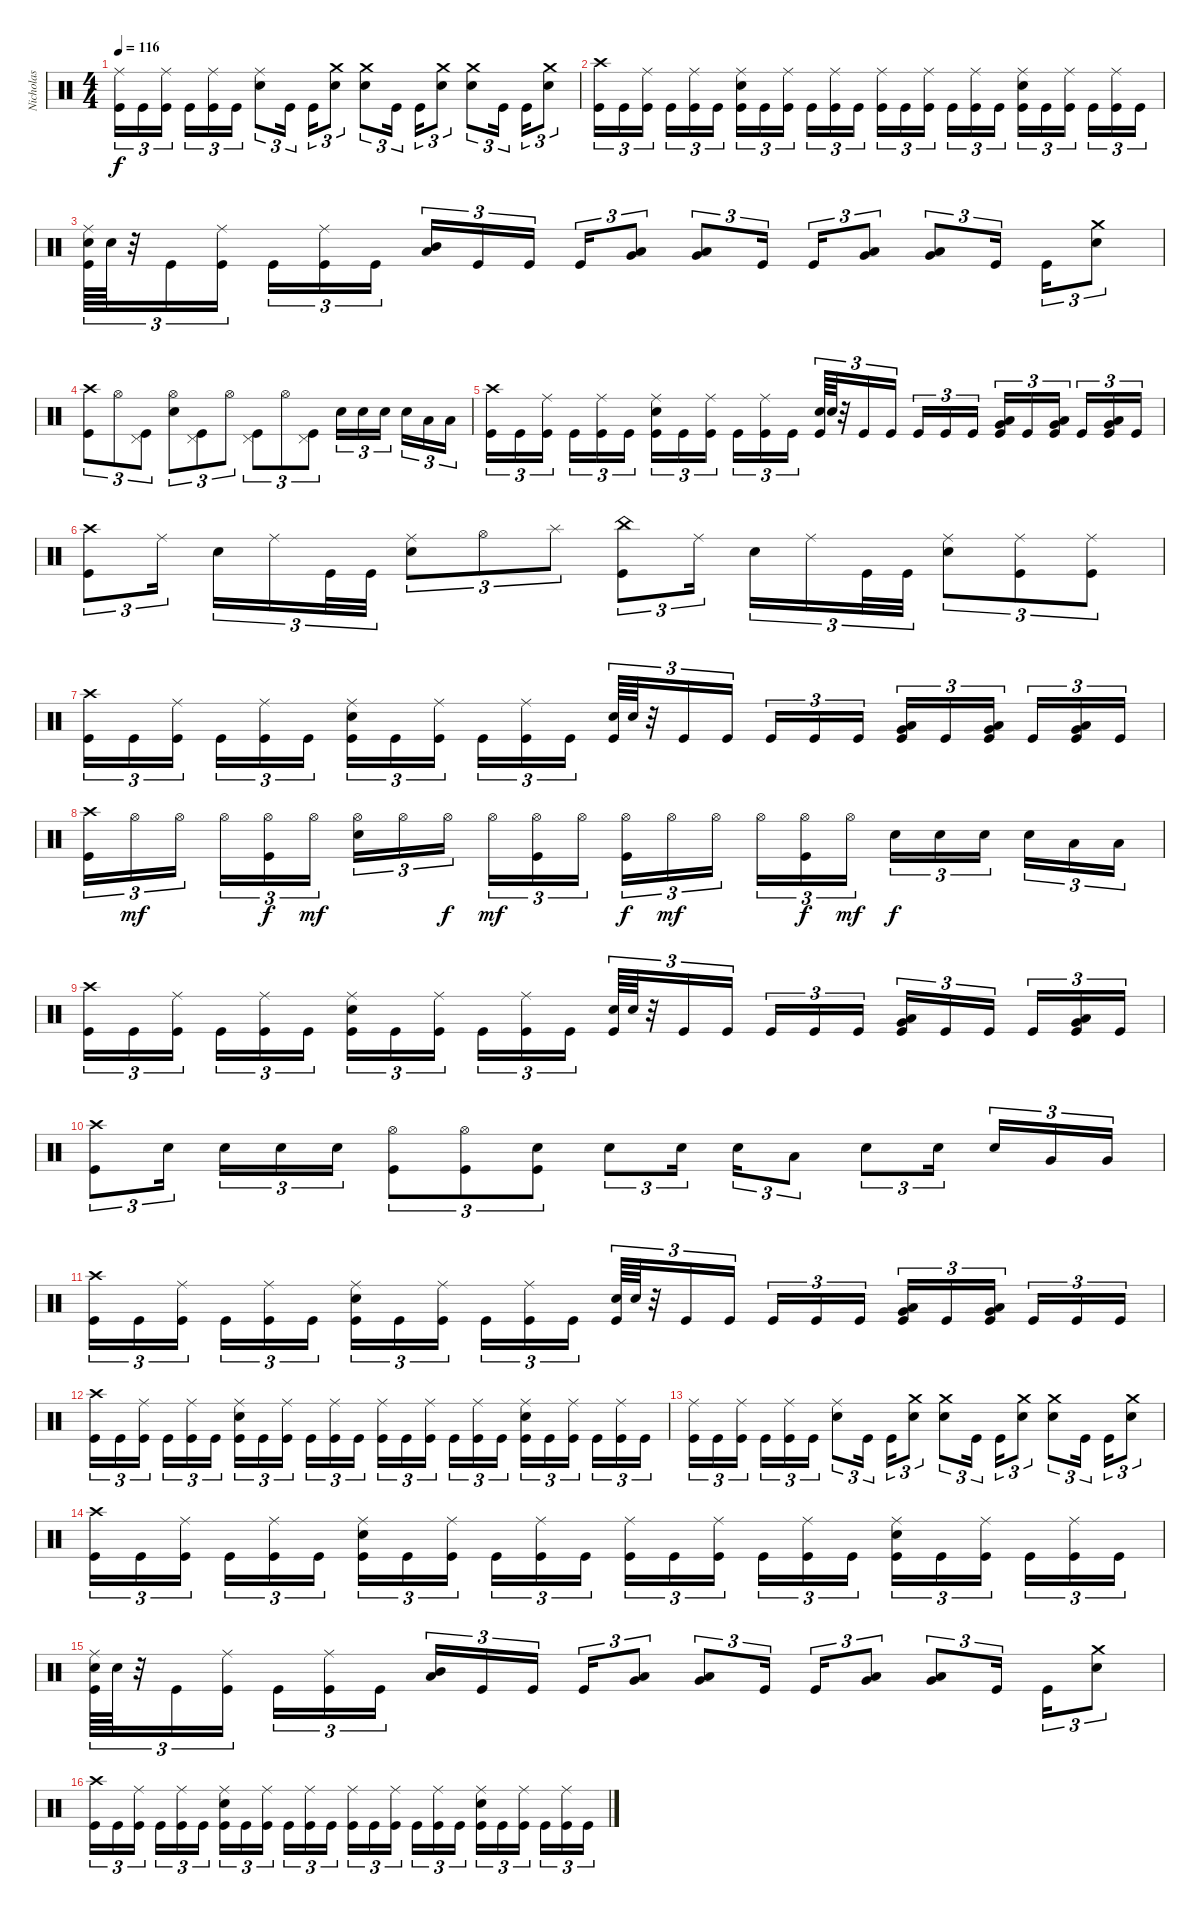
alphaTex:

\track ("Nicholas" "Nicholas") {instrument percussion}
\staff {score}
\articulation defaults
\ts (4 4)
\tempo 116
\clef neutral
\ks c
("Ride (middle)" "Kick (hit)").16{tu (3 2) dy f} "Kick (hit)".16{tu (3 2)} ("Ride (middle)" "Kick (hit)").16{tu (3 2)} "Kick (hit)".16{tu (3 2)} ("Ride (middle)" "Kick (hit)").16{tu (3 2)} "Kick (hit)".16{tu (3 2)} ("Ride (middle)" "Electric Snare (hit)").8{tu (3 2)} "Kick (hit)".16{tu (3 2)} "Kick (hit)".16{tu (3 2)} ("Crash medium (hit)" "Electric Snare (hit)").8{tu (3 2)} ("Crash medium (hit)" "Electric Snare (hit)").8{tu (3 2)} "Kick (hit)".16{tu (3 2)} "Kick (hit)".16{tu (3 2)} ("Crash medium (hit)" "Electric Snare (hit)").8{tu (3 2)} ("Crash medium (hit)" "Electric Snare (hit)").8{tu (3 2)} "Kick (hit)".16{tu (3 2)} "Kick (hit)".16{tu (3 2)} ("Crash medium (hit)" "Electric Snare (hit)").8{tu (3 2)} |
("Crash high (hit)" "Kick (hit)").16{tu (3 2)} "Kick (hit)".16{tu (3 2)} ("Ride (middle)" "Kick (hit)").16{tu (3 2)} "Kick (hit)".16{tu (3 2)} ("Ride (middle)" "Kick (hit)").16{tu (3 2)} "Kick (hit)".16{tu (3 2)} ("Ride (middle)" "Electric Snare (hit)" "Kick (hit)").16{tu (3 2)} "Kick (hit)".16{tu (3 2)} ("Ride (middle)" "Kick (hit)").16{tu (3 2)} "Kick (hit)".16{tu (3 2)} ("Ride (middle)" "Kick (hit)").16{tu (3 2)} "Kick (hit)".16{tu (3 2)} ("Ride (middle)" "Kick (hit)").16{tu (3 2)} "Kick (hit)".16{tu (3 2)} ("Ride (middle)" "Kick (hit)").16{tu (3 2)} "Kick (hit)".16{tu (3 2)} ("Ride (middle)" "Kick (hit)").16{tu (3 2)} "Kick (hit)".16{tu (3 2)} ("Ride (middle)" "Electric Snare (hit)" "Kick (hit)").16{tu (3 2)} "Kick (hit)".16{tu (3 2)} ("Ride (middle)" "Kick (hit)").16{tu (3 2)} "Kick (hit)".16{tu (3 2)} ("Ride (middle)" "Kick (hit)").16{tu (3 2)} "Kick (hit)".16{tu (3 2)} |
("Ride (middle)" "Electric Snare (hit)" "Kick (hit)").64{tu (3 2)} "Electric Snare (hit)".64{tu (3 2)} r.32{tu (3 2)} "Kick (hit)".16{tu (3 2)} ("Ride (middle)" "Kick (hit)").16{tu (3 2)} "Kick (hit)".16{tu (3 2)} ("Ride (middle)" "Kick (hit)").16{tu (3 2)} "Kick (hit)".16{tu (3 2)} ("Mid Tom (hit)" "Low Tom (hit)").16{tu (3 2) bd 60} "Kick (hit)".16{tu (3 2)} "Kick (hit)".16{tu (3 2)} "Kick (hit)".16{tu (3 2)} ("Low Tom (hit)" "Very Low Tom (hit)").8{tu (3 2) bu 60} ("Low Tom (hit)" "Very Low Tom (hit)").8{tu (3 2) bu 60} "Kick (hit)".16{tu (3 2)} "Kick (hit)".16{tu (3 2)} ("Low Tom (hit)" "Very Low Tom (hit)").8{tu (3 2) bu 60} ("Low Tom (hit)" "Very Low Tom (hit)").8{tu (3 2) bu 60} "Kick (hit)".16{tu (3 2)} "Kick (hit)".16{tu (3 2)} ("Crash medium (hit)" "Electric Snare (hit)").8{tu (3 2)} |
("Crash high (hit)" "Kick (hit)").8{tu (3 2)} "Hi-Hat (open)".8{tu (3 2)} ("Pedal Hi-Hat (hit)" "Kick (hit)").8{tu (3 2)} ("Hi-Hat (open)" "Electric Snare (hit)").8{tu (3 2)} ("Pedal Hi-Hat (hit)" "Kick (hit)").8{tu (3 2)} "Hi-Hat (open)".8{tu (3 2)} ("Pedal Hi-Hat (hit)" "Kick (hit)").8{tu (3 2)} "Hi-Hat (open)".8{tu (3 2)} ("Pedal Hi-Hat (hit)" "Kick (hit)").8{tu (3 2)} "Electric Snare (hit)".16{tu (3 2)} "Electric Snare (hit)".16{tu (3 2)} "Electric Snare (hit)".16{tu (3 2)} "Electric Snare (hit)".16{tu (3 2)} "Low Tom (hit)".16{tu (3 2)} "Low Tom (hit)".16{tu (3 2)} |
("Crash high (hit)" "Kick (hit)").16{tu (3 2)} "Kick (hit)".16{tu (3 2)} ("Ride (middle)" "Kick (hit)").16{tu (3 2)} "Kick (hit)".16{tu (3 2)} ("Ride (middle)" "Kick (hit)").16{tu (3 2)} "Kick (hit)".16{tu (3 2)} ("Ride (middle)" "Electric Snare (hit)" "Kick (hit)").16{tu (3 2)} "Kick (hit)".16{tu (3 2)} ("Ride (middle)" "Kick (hit)").16{tu (3 2)} "Kick (hit)".16{tu (3 2)} ("Ride (middle)" "Kick (hit)").16{tu (3 2)} "Kick (hit)".16{tu (3 2)} ("Electric Snare (hit)" "Kick (hit)").64{tu (3 2)} "Electric Snare (hit)".64{tu (3 2)} r.32{tu (3 2)} "Kick (hit)".16{tu (3 2)} "Kick (hit)".16{tu (3 2)} "Kick (hit)".16{tu (3 2)} "Kick (hit)".16{tu (3 2)} "Kick (hit)".16{tu (3 2)} ("Low Tom (hit)" "Very Low Tom (hit)" "Kick (hit)").16{tu (3 2) bd 60} "Kick (hit)".16{tu (3 2)} ("Low Tom (hit)" "Very Low Tom (hit)" "Kick (hit)").16{tu (3 2) bd 60} "Kick (hit)".16{tu (3 2)} ("Low Tom (hit)" "Very Low Tom (hit)" "Kick (hit)").16{tu (3 2) bd 60} "Kick (hit)".16{tu (3 2)} |
("Crash high (hit)" "Kick (hit)").8{tu (3 2)} "Ride (middle)".16{tu (3 2)} "Electric Snare (hit)".16{tu (3 2)} "Ride (middle)".16{tu (3 2)} "Kick (hit)".32{tu (3 2)} "Kick (hit)".32{tu (3 2)} ("Ride (middle)" "Electric Snare (hit)").8{tu (3 2)} "Hi-Hat (open)".8{tu (3 2)} "Splash (hit)".8{tu (3 2)} ("China (hit)" "Kick (hit)").8{tu (3 2)} "Ride (middle)".16{tu (3 2)} "Electric Snare (hit)".16{tu (3 2)} "Ride (middle)".16{tu (3 2)} "Kick (hit)".32{tu (3 2)} "Kick (hit)".32{tu (3 2)} ("Ride (middle)" "Electric Snare (hit)").8{tu (3 2)} ("Ride (middle)" "Kick (hit)").8{tu (3 2)} ("Ride (middle)" "Kick (hit)").8{tu (3 2)} |
("Crash high (hit)" "Kick (hit)").16{tu (3 2)} "Kick (hit)".16{tu (3 2)} ("Ride (middle)" "Kick (hit)").16{tu (3 2)} "Kick (hit)".16{tu (3 2)} ("Ride (middle)" "Kick (hit)").16{tu (3 2)} "Kick (hit)".16{tu (3 2)} ("Ride (middle)" "Electric Snare (hit)" "Kick (hit)").16{tu (3 2)} "Kick (hit)".16{tu (3 2)} ("Ride (middle)" "Kick (hit)").16{tu (3 2)} "Kick (hit)".16{tu (3 2)} ("Ride (middle)" "Kick (hit)").16{tu (3 2)} "Kick (hit)".16{tu (3 2)} ("Electric Snare (hit)" "Kick (hit)").64{tu (3 2)} "Electric Snare (hit)".64{tu (3 2)} r.32{tu (3 2)} "Kick (hit)".16{tu (3 2)} "Kick (hit)".16{tu (3 2)} "Kick (hit)".16{tu (3 2)} "Kick (hit)".16{tu (3 2)} "Kick (hit)".16{tu (3 2)} ("Low Tom (hit)" "Very Low Tom (hit)" "Kick (hit)").16{tu (3 2) bd 60} "Kick (hit)".16{tu (3 2)} ("Low Tom (hit)" "Very Low Tom (hit)" "Kick (hit)").16{tu (3 2) bd 60} "Kick (hit)".16{tu (3 2)} ("Low Tom (hit)" "Very Low Tom (hit)" "Kick (hit)").16{tu (3 2) bd 60} "Kick (hit)".16{tu (3 2)} |
("Crash high (hit)" "Kick (hit)").16{tu (3 2)} "Hi-Hat (open)".16{tu (3 2) dy mf} "Hi-Hat (open)".16{tu (3 2)} "Hi-Hat (open)".16{tu (3 2)} ("Hi-Hat (open)" "Kick (hit)").16{tu (3 2) dy f} "Hi-Hat (open)".16{tu (3 2) dy mf} ("Hi-Hat (open)" "Electric Snare (hit)").16{tu (3 2)} "Hi-Hat (open)".16{tu (3 2)} "Hi-Hat (open)".16{tu (3 2) dy f} "Hi-Hat (open)".16{tu (3 2) dy mf} ("Hi-Hat (open)" "Kick (hit)").16{tu (3 2)} "Hi-Hat (open)".16{tu (3 2)} ("Hi-Hat (open)" "Kick (hit)").16{tu (3 2) dy f} "Hi-Hat (open)".16{tu (3 2) dy mf} "Hi-Hat (open)".16{tu (3 2)} "Hi-Hat (open)".16{tu (3 2)} ("Hi-Hat (open)" "Kick (hit)").16{tu (3 2) dy f} "Hi-Hat (open)".16{tu (3 2) dy mf} "Electric Snare (hit)".16{tu (3 2) dy f} "Electric Snare (hit)".16{tu (3 2)} "Electric Snare (hit)".16{tu (3 2)} "Electric Snare (hit)".16{tu (3 2)} "Low Tom (hit)".16{tu (3 2)} "Low Tom (hit)".16{tu (3 2)} |
("Crash high (hit)" "Kick (hit)").16{tu (3 2)} "Kick (hit)".16{tu (3 2)} ("Ride (middle)" "Kick (hit)").16{tu (3 2)} "Kick (hit)".16{tu (3 2)} ("Ride (middle)" "Kick (hit)").16{tu (3 2)} "Kick (hit)".16{tu (3 2)} ("Ride (middle)" "Electric Snare (hit)" "Kick (hit)").16{tu (3 2)} "Kick (hit)".16{tu (3 2)} ("Ride (middle)" "Kick (hit)").16{tu (3 2)} "Kick (hit)".16{tu (3 2)} ("Ride (middle)" "Kick (hit)").16{tu (3 2)} "Kick (hit)".16{tu (3 2)} ("Electric Snare (hit)" "Kick (hit)").64{tu (3 2)} "Electric Snare (hit)".64{tu (3 2)} r.32{tu (3 2)} "Kick (hit)".16{tu (3 2)} "Kick (hit)".16{tu (3 2)} "Kick (hit)".16{tu (3 2)} "Kick (hit)".16{tu (3 2)} "Kick (hit)".16{tu (3 2)} ("Low Tom (hit)" "Very Low Tom (hit)" "Kick (hit)").16{tu (3 2) bd 60} "Kick (hit)".16{tu (3 2)} "Kick (hit)".16{tu (3 2)} "Kick (hit)".16{tu (3 2)} ("Low Tom (hit)" "Very Low Tom (hit)" "Kick (hit)").16{tu (3 2) bd 60} "Kick (hit)".16{tu (3 2)} |
("Crash high (hit)" "Kick (hit)").8{tu (3 2)} "Electric Snare (hit)".16{tu (3 2)} "Electric Snare (hit)".16{tu (3 2)} "Electric Snare (hit)".16{tu (3 2)} "Electric Snare (hit)".16{tu (3 2)} ("Hi-Hat (open)" "Kick (hit)").8{tu (3 2)} ("Hi-Hat (open)" "Kick (hit)").8{tu (3 2)} ("Electric Snare (hit)" "Kick (hit)").8{tu (3 2)} "Electric Snare (hit)".8{tu (3 2)} "Electric Snare (hit)".16{tu (3 2)} "Electric Snare (hit)".16{tu (3 2)} "Low Tom (hit)".8{tu (3 2)} "Electric Snare (hit)".8{tu (3 2)} "Electric Snare (hit)".16{tu (3 2)} "Electric Snare (hit)".16{tu (3 2)} "Very Low Tom (hit)".16{tu (3 2)} "Very Low Tom (hit)".16{tu (3 2)} |
("Crash high (hit)" "Kick (hit)").16{tu (3 2)} "Kick (hit)".16{tu (3 2)} ("Ride (middle)" "Kick (hit)").16{tu (3 2)} "Kick (hit)".16{tu (3 2)} ("Ride (middle)" "Kick (hit)").16{tu (3 2)} "Kick (hit)".16{tu (3 2)} ("Ride (middle)" "Electric Snare (hit)" "Kick (hit)").16{tu (3 2)} "Kick (hit)".16{tu (3 2)} ("Ride (middle)" "Kick (hit)").16{tu (3 2)} "Kick (hit)".16{tu (3 2)} ("Ride (middle)" "Kick (hit)").16{tu (3 2)} "Kick (hit)".16{tu (3 2)} ("Electric Snare (hit)" "Kick (hit)").64{tu (3 2)} "Electric Snare (hit)".64{tu (3 2)} r.32{tu (3 2)} "Kick (hit)".16{tu (3 2)} "Kick (hit)".16{tu (3 2)} "Kick (hit)".16{tu (3 2)} "Kick (hit)".16{tu (3 2)} "Kick (hit)".16{tu (3 2)} ("Low Tom (hit)" "Very Low Tom (hit)" "Kick (hit)").16{tu (3 2) bd 60} "Kick (hit)".16{tu (3 2)} ("Low Tom (hit)" "Very Low Tom (hit)" "Kick (hit)").16{tu (3 2) bd 60} "Kick (hit)".16{tu (3 2)} "Kick (hit)".16{tu (3 2)} "Kick (hit)".16{tu (3 2)} |
("Crash high (hit)" "Kick (hit)").16{tu (3 2)} "Kick (hit)".16{tu (3 2)} ("Ride (middle)" "Kick (hit)").16{tu (3 2)} "Kick (hit)".16{tu (3 2)} ("Ride (middle)" "Kick (hit)").16{tu (3 2)} "Kick (hit)".16{tu (3 2)} ("Ride (middle)" "Electric Snare (hit)" "Kick (hit)").16{tu (3 2)} "Kick (hit)".16{tu (3 2)} ("Ride (middle)" "Kick (hit)").16{tu (3 2)} "Kick (hit)".16{tu (3 2)} ("Ride (middle)" "Kick (hit)").16{tu (3 2)} "Kick (hit)".16{tu (3 2)} ("Ride (middle)" "Kick (hit)").16{tu (3 2)} "Kick (hit)".16{tu (3 2)} ("Ride (middle)" "Kick (hit)").16{tu (3 2)} "Kick (hit)".16{tu (3 2)} ("Ride (middle)" "Kick (hit)").16{tu (3 2)} "Kick (hit)".16{tu (3 2)} ("Ride (middle)" "Electric Snare (hit)" "Kick (hit)").16{tu (3 2)} "Kick (hit)".16{tu (3 2)} ("Ride (middle)" "Kick (hit)").16{tu (3 2)} "Kick (hit)".16{tu (3 2)} ("Ride (middle)" "Kick (hit)").16{tu (3 2)} "Kick (hit)".16{tu (3 2)} |
("Ride (middle)" "Kick (hit)").16{tu (3 2)} "Kick (hit)".16{tu (3 2)} ("Ride (middle)" "Kick (hit)").16{tu (3 2)} "Kick (hit)".16{tu (3 2)} ("Ride (middle)" "Kick (hit)").16{tu (3 2)} "Kick (hit)".16{tu (3 2)} ("Ride (middle)" "Electric Snare (hit)").8{tu (3 2)} "Kick (hit)".16{tu (3 2)} "Kick (hit)".16{tu (3 2)} ("Crash medium (hit)" "Electric Snare (hit)").8{tu (3 2)} ("Crash medium (hit)" "Electric Snare (hit)").8{tu (3 2)} "Kick (hit)".16{tu (3 2)} "Kick (hit)".16{tu (3 2)} ("Crash medium (hit)" "Electric Snare (hit)").8{tu (3 2)} ("Crash medium (hit)" "Electric Snare (hit)").8{tu (3 2)} "Kick (hit)".16{tu (3 2)} "Kick (hit)".16{tu (3 2)} ("Crash medium (hit)" "Electric Snare (hit)").8{tu (3 2)} |
("Crash high (hit)" "Kick (hit)").16{tu (3 2)} "Kick (hit)".16{tu (3 2)} ("Ride (middle)" "Kick (hit)").16{tu (3 2)} "Kick (hit)".16{tu (3 2)} ("Ride (middle)" "Kick (hit)").16{tu (3 2)} "Kick (hit)".16{tu (3 2)} ("Ride (middle)" "Electric Snare (hit)" "Kick (hit)").16{tu (3 2)} "Kick (hit)".16{tu (3 2)} ("Ride (middle)" "Kick (hit)").16{tu (3 2)} "Kick (hit)".16{tu (3 2)} ("Ride (middle)" "Kick (hit)").16{tu (3 2)} "Kick (hit)".16{tu (3 2)} ("Ride (middle)" "Kick (hit)").16{tu (3 2)} "Kick (hit)".16{tu (3 2)} ("Ride (middle)" "Kick (hit)").16{tu (3 2)} "Kick (hit)".16{tu (3 2)} ("Ride (middle)" "Kick (hit)").16{tu (3 2)} "Kick (hit)".16{tu (3 2)} ("Ride (middle)" "Electric Snare (hit)" "Kick (hit)").16{tu (3 2)} "Kick (hit)".16{tu (3 2)} ("Ride (middle)" "Kick (hit)").16{tu (3 2)} "Kick (hit)".16{tu (3 2)} ("Ride (middle)" "Kick (hit)").16{tu (3 2)} "Kick (hit)".16{tu (3 2)} |
("Ride (middle)" "Electric Snare (hit)" "Kick (hit)").64{tu (3 2)} "Electric Snare (hit)".64{tu (3 2)} r.32{tu (3 2)} "Kick (hit)".16{tu (3 2)} ("Ride (middle)" "Kick (hit)").16{tu (3 2)} "Kick (hit)".16{tu (3 2)} ("Ride (middle)" "Kick (hit)").16{tu (3 2)} "Kick (hit)".16{tu (3 2)} ("Mid Tom (hit)" "Low Tom (hit)").16{tu (3 2) bd 60} "Kick (hit)".16{tu (3 2)} "Kick (hit)".16{tu (3 2)} "Kick (hit)".16{tu (3 2)} ("Low Tom (hit)" "Very Low Tom (hit)").8{tu (3 2) bu 60} ("Low Tom (hit)" "Very Low Tom (hit)").8{tu (3 2) bu 60} "Kick (hit)".16{tu (3 2)} "Kick (hit)".16{tu (3 2)} ("Low Tom (hit)" "Very Low Tom (hit)").8{tu (3 2) bu 60} ("Low Tom (hit)" "Very Low Tom (hit)").8{tu (3 2) bu 60} "Kick (hit)".16{tu (3 2)} "Kick (hit)".16{tu (3 2)} ("Crash medium (hit)" "Electric Snare (hit)").8{tu (3 2)} |
("Crash high (hit)" "Kick (hit)").16{tu (3 2)} "Kick (hit)".16{tu (3 2)} ("Ride (middle)" "Kick (hit)").16{tu (3 2)} "Kick (hit)".16{tu (3 2)} ("Ride (middle)" "Kick (hit)").16{tu (3 2)} "Kick (hit)".16{tu (3 2)} ("Ride (middle)" "Electric Snare (hit)" "Kick (hit)").16{tu (3 2)} "Kick (hit)".16{tu (3 2)} ("Ride (middle)" "Kick (hit)").16{tu (3 2)} "Kick (hit)".16{tu (3 2)} ("Ride (middle)" "Kick (hit)").16{tu (3 2)} "Kick (hit)".16{tu (3 2)} ("Ride (middle)" "Kick (hit)").16{tu (3 2)} "Kick (hit)".16{tu (3 2)} ("Ride (middle)" "Kick (hit)").16{tu (3 2)} "Kick (hit)".16{tu (3 2)} ("Ride (middle)" "Kick (hit)").16{tu (3 2)} "Kick (hit)".16{tu (3 2)} ("Ride (middle)" "Electric Snare (hit)" "Kick (hit)").16{tu (3 2)} "Kick (hit)".16{tu (3 2)} ("Ride (middle)" "Kick (hit)").16{tu (3 2)} "Kick (hit)".16{tu (3 2)} ("Ride (middle)" "Kick (hit)").16{tu (3 2)} "Kick (hit)".16{tu (3 2)}
